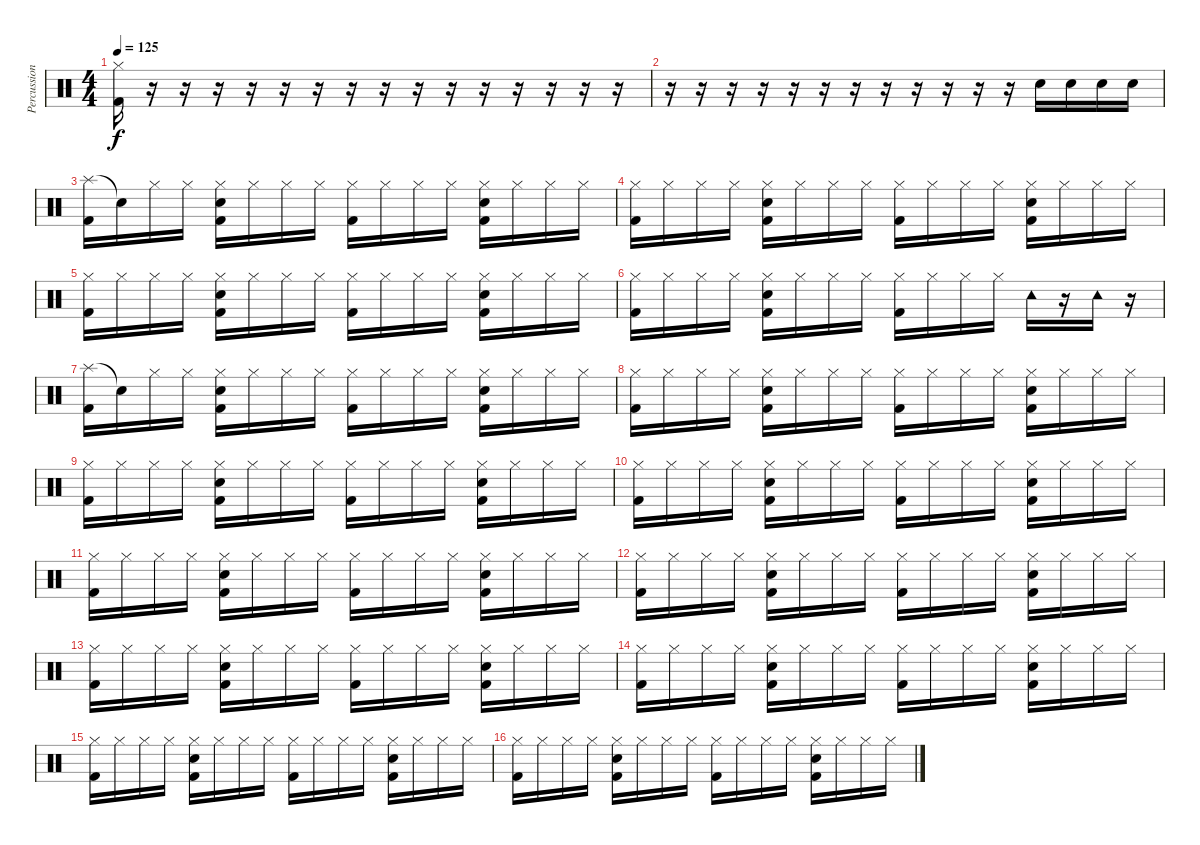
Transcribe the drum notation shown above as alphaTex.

\track ("Percussion" "Percussion") {instrument percussion}
\staff {score}
\articulation defaults
\ts (4 4)
\tempo 125
\clef neutral
\ks c
("Hi-Hat (closed)" "Kick (hit) 2").16{dy f} r.16 r.16 r.16 r.16 r.16 r.16 r.16 r.16 r.16 r.16 r.16 r.16 r.16 r.16 r.16 |
r.16 r.16 r.16 r.16 r.16 r.16 r.16 r.16 r.16 r.16 r.16 r.16 "Electric Snare (hit)".16 "Electric Snare (hit)".16 "Electric Snare (hit)".16 "Electric Snare (hit)".16 |
("Splash (hit)" "Kick (hit) 2").16 "Snare (hit)"{t}.16 "Hi-Hat (closed)".16 "Hi-Hat (closed)".16 ("Hi-Hat (closed)" "Electric Snare (hit)" "Kick (hit) 2").16 "Hi-Hat (closed)".16 "Hi-Hat (closed)".16 "Hi-Hat (closed)".16 ("Hi-Hat (closed)" "Kick (hit) 2").16 "Hi-Hat (closed)".16 "Hi-Hat (closed)".16 "Hi-Hat (closed)".16 ("Hi-Hat (closed)" "Electric Snare (hit)" "Kick (hit) 2").16 "Hi-Hat (closed)".16 "Hi-Hat (closed)".16 "Hi-Hat (closed)".16 |
("Hi-Hat (closed)" "Kick (hit) 2").16 "Hi-Hat (closed)".16 "Hi-Hat (closed)".16 "Hi-Hat (closed)".16 ("Hi-Hat (closed)" "Electric Snare (hit)" "Kick (hit) 2").16 "Hi-Hat (closed)".16 "Hi-Hat (closed)".16 "Hi-Hat (closed)".16 ("Hi-Hat (closed)" "Kick (hit) 2").16 "Hi-Hat (closed)".16 "Hi-Hat (closed)".16 "Hi-Hat (closed)".16 ("Hi-Hat (closed)" "Electric Snare (hit)" "Kick (hit) 2").16 "Hi-Hat (closed)".16 "Hi-Hat (closed)".16 "Hi-Hat (closed)".16 |
("Hi-Hat (closed)" "Kick (hit) 2").16 "Hi-Hat (closed)".16 "Hi-Hat (closed)".16 "Hi-Hat (closed)".16 ("Hi-Hat (closed)" "Electric Snare (hit)" "Kick (hit) 2").16 "Hi-Hat (closed)".16 "Hi-Hat (closed)".16 "Hi-Hat (closed)".16 ("Hi-Hat (closed)" "Kick (hit) 2").16 "Hi-Hat (closed)".16 "Hi-Hat (closed)".16 "Hi-Hat (closed)".16 ("Hi-Hat (closed)" "Electric Snare (hit)" "Kick (hit) 2").16 "Hi-Hat (closed)".16 "Hi-Hat (closed)".16 "Hi-Hat (closed)".16 |
("Hi-Hat (closed)" "Kick (hit) 2").16 "Hi-Hat (closed)".16 "Hi-Hat (closed)".16 "Hi-Hat (closed)".16 ("Hi-Hat (closed)" "Electric Snare (hit)" "Kick (hit) 2").16 "Hi-Hat (closed)".16 "Hi-Hat (closed)".16 "Hi-Hat (closed)".16 ("Hi-Hat (closed)" "Kick (hit) 2").16 "Hi-Hat (closed)".16 "Hi-Hat (closed)".16 "Hi-Hat (closed)".16 "Tambourine (hit)".16 r.16 "Tambourine (hit)".16 r.16 |
("Splash (hit)" "Kick (hit) 2").16 "Snare (hit)"{t}.16 "Hi-Hat (closed)".16 "Hi-Hat (closed)".16 ("Hi-Hat (closed)" "Electric Snare (hit)" "Kick (hit) 2").16 "Hi-Hat (closed)".16 "Hi-Hat (closed)".16 "Hi-Hat (closed)".16 ("Hi-Hat (closed)" "Kick (hit) 2").16 "Hi-Hat (closed)".16 "Hi-Hat (closed)".16 "Hi-Hat (closed)".16 ("Hi-Hat (closed)" "Electric Snare (hit)" "Kick (hit) 2").16 "Hi-Hat (closed)".16 "Hi-Hat (closed)".16 "Hi-Hat (closed)".16 |
("Hi-Hat (closed)" "Kick (hit) 2").16 "Hi-Hat (closed)".16 "Hi-Hat (closed)".16 "Hi-Hat (closed)".16 ("Hi-Hat (closed)" "Electric Snare (hit)" "Kick (hit) 2").16 "Hi-Hat (closed)".16 "Hi-Hat (closed)".16 "Hi-Hat (closed)".16 ("Hi-Hat (closed)" "Kick (hit) 2").16 "Hi-Hat (closed)".16 "Hi-Hat (closed)".16 "Hi-Hat (closed)".16 ("Hi-Hat (closed)" "Electric Snare (hit)" "Kick (hit) 2").16 "Hi-Hat (closed)".16 "Hi-Hat (closed)".16 "Hi-Hat (closed)".16 |
("Hi-Hat (closed)" "Kick (hit) 2").16 "Hi-Hat (closed)".16 "Hi-Hat (closed)".16 "Hi-Hat (closed)".16 ("Hi-Hat (closed)" "Electric Snare (hit)" "Kick (hit) 2").16 "Hi-Hat (closed)".16 "Hi-Hat (closed)".16 "Hi-Hat (closed)".16 ("Hi-Hat (closed)" "Kick (hit) 2").16 "Hi-Hat (closed)".16 "Hi-Hat (closed)".16 "Hi-Hat (closed)".16 ("Hi-Hat (closed)" "Electric Snare (hit)" "Kick (hit) 2").16 "Hi-Hat (closed)".16 "Hi-Hat (closed)".16 "Hi-Hat (closed)".16 |
("Hi-Hat (closed)" "Kick (hit) 2").16 "Hi-Hat (closed)".16 "Hi-Hat (closed)".16 "Hi-Hat (closed)".16 ("Hi-Hat (closed)" "Electric Snare (hit)" "Kick (hit) 2").16 "Hi-Hat (closed)".16 "Hi-Hat (closed)".16 "Hi-Hat (closed)".16 ("Hi-Hat (closed)" "Kick (hit) 2").16 "Hi-Hat (closed)".16 "Hi-Hat (closed)".16 "Hi-Hat (closed)".16 ("Hi-Hat (closed)" "Electric Snare (hit)" "Kick (hit) 2").16 "Hi-Hat (closed)".16 "Hi-Hat (closed)".16 "Hi-Hat (closed)".16 |
("Hi-Hat (closed)" "Kick (hit) 2").16 "Hi-Hat (closed)".16 "Hi-Hat (closed)".16 "Hi-Hat (closed)".16 ("Hi-Hat (closed)" "Electric Snare (hit)" "Kick (hit) 2").16 "Hi-Hat (closed)".16 "Hi-Hat (closed)".16 "Hi-Hat (closed)".16 ("Hi-Hat (closed)" "Kick (hit) 2").16 "Hi-Hat (closed)".16 "Hi-Hat (closed)".16 "Hi-Hat (closed)".16 ("Hi-Hat (closed)" "Electric Snare (hit)" "Kick (hit) 2").16 "Hi-Hat (closed)".16 "Hi-Hat (closed)".16 "Hi-Hat (closed)".16 |
("Hi-Hat (closed)" "Kick (hit) 2").16 "Hi-Hat (closed)".16 "Hi-Hat (closed)".16 "Hi-Hat (closed)".16 ("Hi-Hat (closed)" "Electric Snare (hit)" "Kick (hit) 2").16 "Hi-Hat (closed)".16 "Hi-Hat (closed)".16 "Hi-Hat (closed)".16 ("Hi-Hat (closed)" "Kick (hit) 2").16 "Hi-Hat (closed)".16 "Hi-Hat (closed)".16 "Hi-Hat (closed)".16 ("Hi-Hat (closed)" "Electric Snare (hit)" "Kick (hit) 2").16 "Hi-Hat (closed)".16 "Hi-Hat (closed)".16 "Hi-Hat (closed)".16 |
("Hi-Hat (closed)" "Kick (hit) 2").16 "Hi-Hat (closed)".16 "Hi-Hat (closed)".16 "Hi-Hat (closed)".16 ("Hi-Hat (closed)" "Electric Snare (hit)" "Kick (hit) 2").16 "Hi-Hat (closed)".16 "Hi-Hat (closed)".16 "Hi-Hat (closed)".16 ("Hi-Hat (closed)" "Kick (hit) 2").16 "Hi-Hat (closed)".16 "Hi-Hat (closed)".16 "Hi-Hat (closed)".16 ("Hi-Hat (closed)" "Electric Snare (hit)" "Kick (hit) 2").16 "Hi-Hat (closed)".16 "Hi-Hat (closed)".16 "Hi-Hat (closed)".16 |
("Hi-Hat (closed)" "Kick (hit) 2").16 "Hi-Hat (closed)".16 "Hi-Hat (closed)".16 "Hi-Hat (closed)".16 ("Hi-Hat (closed)" "Electric Snare (hit)" "Kick (hit) 2").16 "Hi-Hat (closed)".16 "Hi-Hat (closed)".16 "Hi-Hat (closed)".16 ("Hi-Hat (closed)" "Kick (hit) 2").16 "Hi-Hat (closed)".16 "Hi-Hat (closed)".16 "Hi-Hat (closed)".16 ("Hi-Hat (closed)" "Electric Snare (hit)" "Kick (hit) 2").16 "Hi-Hat (closed)".16 "Hi-Hat (closed)".16 "Hi-Hat (closed)".16 |
("Hi-Hat (closed)" "Kick (hit) 2").16 "Hi-Hat (closed)".16 "Hi-Hat (closed)".16 "Hi-Hat (closed)".16 ("Hi-Hat (closed)" "Electric Snare (hit)" "Kick (hit) 2").16 "Hi-Hat (closed)".16 "Hi-Hat (closed)".16 "Hi-Hat (closed)".16 ("Hi-Hat (closed)" "Kick (hit) 2").16 "Hi-Hat (closed)".16 "Hi-Hat (closed)".16 "Hi-Hat (closed)".16 ("Hi-Hat (closed)" "Electric Snare (hit)" "Kick (hit) 2").16 "Hi-Hat (closed)".16 "Hi-Hat (closed)".16 "Hi-Hat (closed)".16 |
("Hi-Hat (closed)" "Kick (hit) 2").16 "Hi-Hat (closed)".16 "Hi-Hat (closed)".16 "Hi-Hat (closed)".16 ("Hi-Hat (closed)" "Electric Snare (hit)" "Kick (hit) 2").16 "Hi-Hat (closed)".16 "Hi-Hat (closed)".16 "Hi-Hat (closed)".16 ("Hi-Hat (closed)" "Kick (hit) 2").16 "Hi-Hat (closed)".16 "Hi-Hat (closed)".16 "Hi-Hat (closed)".16 ("Hi-Hat (closed)" "Electric Snare (hit)" "Kick (hit) 2").16 "Hi-Hat (closed)".16 "Hi-Hat (closed)".16 "Hi-Hat (closed)".16
